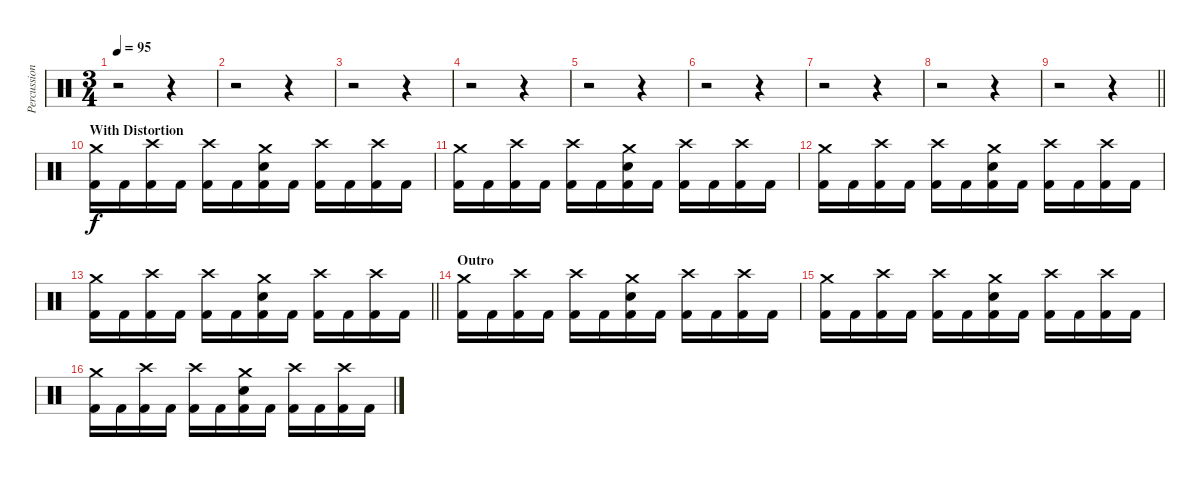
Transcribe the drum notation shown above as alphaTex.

\track ("Percussion" "Percussion") {instrument percussion}
\staff {score}
\articulation defaults
\ts (3 4)
\tempo 95
\clef neutral
\ks c
r.2{dy f} r.4 |
r.2 r.4 |
r.2 r.4 |
r.2 r.4 |
r.2 r.4 |
r.2 r.4 |
r.2 r.4 |
r.2 r.4 |
\barLineRight lightlight
r.2 r.4 |
\section ("" "With Distortion")
("Crash medium (hit)" "Kick (hit) 2").16 "Kick (hit) 2".16 ("Crash high (hit)" "Kick (hit) 2").16 "Kick (hit) 2".16 ("Crash high (hit)" "Kick (hit) 2").16 "Kick (hit) 2".16 ("Crash medium (hit)" "Electric Snare (hit)" "Kick (hit) 2").16 "Kick (hit) 2".16 ("Crash high (hit)" "Kick (hit) 2").16 "Kick (hit) 2".16 ("Crash high (hit)" "Kick (hit) 2").16 "Kick (hit) 2".16 |
("Crash medium (hit)" "Kick (hit) 2").16 "Kick (hit) 2".16 ("Crash high (hit)" "Kick (hit) 2").16 "Kick (hit) 2".16 ("Crash high (hit)" "Kick (hit) 2").16 "Kick (hit) 2".16 ("Crash medium (hit)" "Electric Snare (hit)" "Kick (hit) 2").16 "Kick (hit) 2".16 ("Crash high (hit)" "Kick (hit) 2").16 "Kick (hit) 2".16 ("Crash high (hit)" "Kick (hit) 2").16 "Kick (hit) 2".16 |
("Crash medium (hit)" "Kick (hit) 2").16 "Kick (hit) 2".16 ("Crash high (hit)" "Kick (hit) 2").16 "Kick (hit) 2".16 ("Crash high (hit)" "Kick (hit) 2").16 "Kick (hit) 2".16 ("Crash medium (hit)" "Electric Snare (hit)" "Kick (hit) 2").16 "Kick (hit) 2".16 ("Crash high (hit)" "Kick (hit) 2").16 "Kick (hit) 2".16 ("Crash high (hit)" "Kick (hit) 2").16 "Kick (hit) 2".16 |
\barLineRight lightlight
("Crash medium (hit)" "Kick (hit) 2").16 "Kick (hit) 2".16 ("Crash high (hit)" "Kick (hit) 2").16 "Kick (hit) 2".16 ("Crash high (hit)" "Kick (hit) 2").16 "Kick (hit) 2".16 ("Crash medium (hit)" "Electric Snare (hit)" "Kick (hit) 2").16 "Kick (hit) 2".16 ("Crash high (hit)" "Kick (hit) 2").16 "Kick (hit) 2".16 ("Crash high (hit)" "Kick (hit) 2").16 "Kick (hit) 2".16 |
\section ("" "Outro")
("Crash medium (hit)" "Kick (hit) 2").16 "Kick (hit) 2".16 ("Crash high (hit)" "Kick (hit) 2").16 "Kick (hit) 2".16 ("Crash high (hit)" "Kick (hit) 2").16 "Kick (hit) 2".16 ("Crash medium (hit)" "Electric Snare (hit)" "Kick (hit) 2").16 "Kick (hit) 2".16 ("Crash high (hit)" "Kick (hit) 2").16 "Kick (hit) 2".16 ("Crash high (hit)" "Kick (hit) 2").16 "Kick (hit) 2".16 |
("Crash medium (hit)" "Kick (hit) 2").16 "Kick (hit) 2".16 ("Crash high (hit)" "Kick (hit) 2").16 "Kick (hit) 2".16 ("Crash high (hit)" "Kick (hit) 2").16 "Kick (hit) 2".16 ("Crash medium (hit)" "Electric Snare (hit)" "Kick (hit) 2").16 "Kick (hit) 2".16 ("Crash high (hit)" "Kick (hit) 2").16 "Kick (hit) 2".16 ("Crash high (hit)" "Kick (hit) 2").16 "Kick (hit) 2".16 |
("Crash medium (hit)" "Kick (hit) 2").16 "Kick (hit) 2".16 ("Crash high (hit)" "Kick (hit) 2").16 "Kick (hit) 2".16 ("Crash high (hit)" "Kick (hit) 2").16 "Kick (hit) 2".16 ("Crash medium (hit)" "Electric Snare (hit)" "Kick (hit) 2").16 "Kick (hit) 2".16 ("Crash high (hit)" "Kick (hit) 2").16 "Kick (hit) 2".16 ("Crash high (hit)" "Kick (hit) 2").16 "Kick (hit) 2".16
